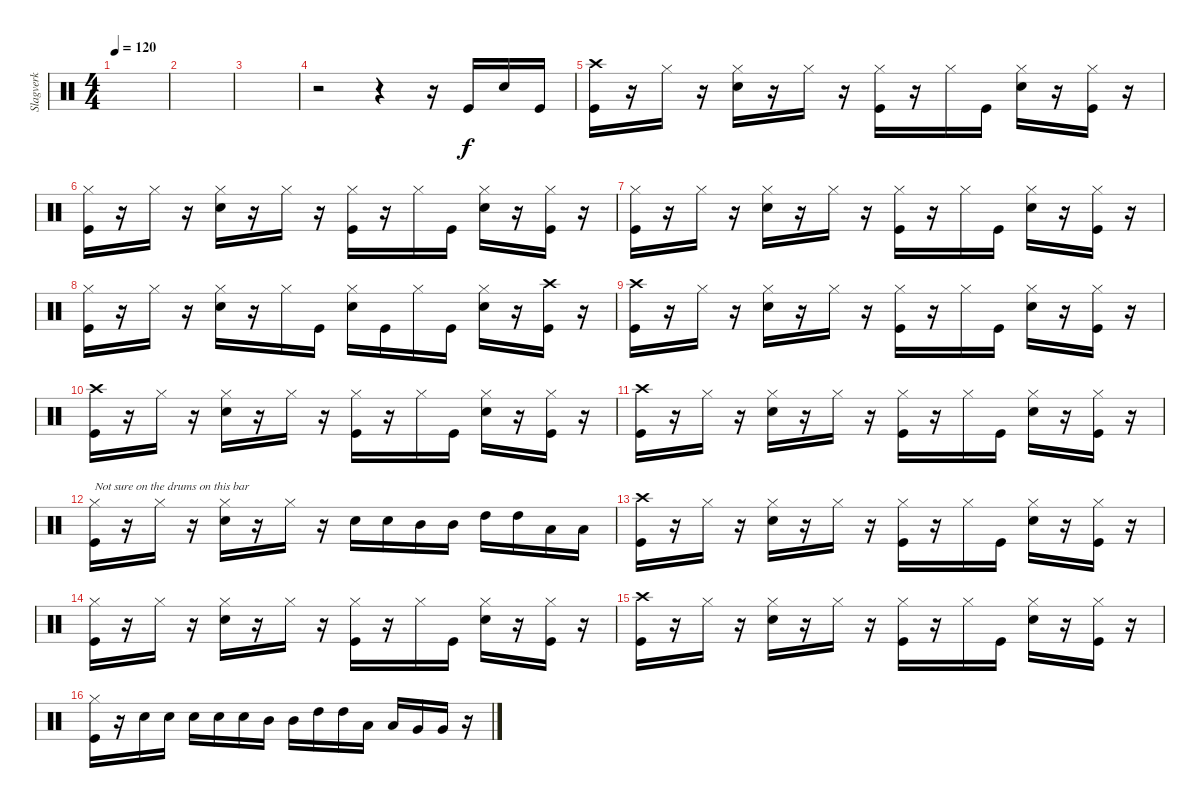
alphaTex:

\track ("Slagverk" "Slagverk") {instrument percussion}
\staff {score}
\articulation defaults
\ts (4 4)
\tempo 120
\clef neutral
\ks c
|
|
|
r.2 r.4 r.16 "Kick (hit)".16 "Snare (hit) 2".16 "Kick (hit)".16 |
("Crash high (hit)" "Kick (hit)").16 r.16 "Hi-Hat (closed)".16 r.16 ("Hi-Hat (closed)" "Snare (hit) 2").16 r.16 "Hi-Hat (closed)".16 r.16 ("Hi-Hat (closed)" "Kick (hit)").16 r.16 "Hi-Hat (closed)".16 "Kick (hit)".16 ("Hi-Hat (closed)" "Snare (hit) 2").16 r.16 ("Hi-Hat (closed)" "Kick (hit)").16 r.16 |
("Hi-Hat (closed)" "Kick (hit)").16 r.16 "Hi-Hat (closed)".16 r.16 ("Hi-Hat (closed)" "Snare (hit) 2").16 r.16 "Hi-Hat (closed)".16 r.16 ("Hi-Hat (closed)" "Kick (hit)").16 r.16 "Hi-Hat (closed)".16 "Kick (hit)".16 ("Hi-Hat (closed)" "Snare (hit) 2").16 r.16 ("Hi-Hat (closed)" "Kick (hit)").16 r.16 |
("Hi-Hat (closed)" "Kick (hit)").16 r.16 "Hi-Hat (closed)".16 r.16 ("Hi-Hat (closed)" "Snare (hit) 2").16 r.16 "Hi-Hat (closed)".16 r.16 ("Hi-Hat (closed)" "Kick (hit)").16 r.16 "Hi-Hat (closed)".16 "Kick (hit)".16 ("Hi-Hat (closed)" "Snare (hit) 2").16 r.16 ("Hi-Hat (closed)" "Kick (hit)").16 r.16 |
("Hi-Hat (closed)" "Kick (hit)").16 r.16 "Hi-Hat (closed)".16 r.16 ("Hi-Hat (closed)" "Snare (hit) 2").16 r.16 "Hi-Hat (closed)".16 "Kick (hit)".16 ("Hi-Hat (closed)" "Snare (hit) 2").16 "Kick (hit)".16 "Hi-Hat (closed)".16 "Kick (hit)".16 ("Hi-Hat (closed)" "Snare (hit) 2").16 r.16 ("Crash high (hit)" "Kick (hit)").16 r.16 |
("Crash high (hit)" "Kick (hit)").16 r.16 "Hi-Hat (closed)".16 r.16 ("Hi-Hat (closed)" "Snare (hit) 2").16 r.16 "Hi-Hat (closed)".16 r.16 ("Hi-Hat (closed)" "Kick (hit)").16 r.16 "Hi-Hat (closed)".16 "Kick (hit)".16 ("Hi-Hat (closed)" "Snare (hit) 2").16 r.16 ("Hi-Hat (closed)" "Kick (hit)").16 r.16 |
("Crash high (hit)" "Kick (hit)").16 r.16 "Hi-Hat (closed)".16 r.16 ("Hi-Hat (closed)" "Snare (hit) 2").16 r.16 "Hi-Hat (closed)".16 r.16 ("Hi-Hat (closed)" "Kick (hit)").16 r.16 "Hi-Hat (closed)".16 "Kick (hit)".16 ("Hi-Hat (closed)" "Snare (hit) 2").16 r.16 ("Hi-Hat (closed)" "Kick (hit)").16 r.16 |
("Crash high (hit)" "Kick (hit)").16 r.16 "Hi-Hat (closed)".16 r.16 ("Hi-Hat (closed)" "Snare (hit) 2").16 r.16 "Hi-Hat (closed)".16 r.16 ("Hi-Hat (closed)" "Kick (hit)").16 r.16 "Hi-Hat (closed)".16 "Kick (hit)".16 ("Hi-Hat (closed)" "Snare (hit) 2").16 r.16 ("Hi-Hat (closed)" "Kick (hit)").16 r.16 |
("Hi-Hat (closed)" "Kick (hit)").16{txt "Not sure on the drums on this bar"} r.16 "Hi-Hat (closed)".16 r.16 ("Hi-Hat (closed)" "Snare (hit) 2").16 r.16 "Hi-Hat (closed)".16 r.16 "Snare (hit) 2".16 "Snare (hit) 2".16 "Mid Tom (hit)".16 "Mid Tom (hit)".16 "High Tom (hit)".16 "High Tom (hit)".16 "Low Tom (hit)".16 "Low Tom (hit)".16 |
("Crash high (hit)" "Kick (hit)").16 r.16 "Hi-Hat (closed)".16 r.16 ("Hi-Hat (closed)" "Snare (hit) 2").16 r.16 "Hi-Hat (closed)".16 r.16 ("Hi-Hat (closed)" "Kick (hit)").16 r.16 "Hi-Hat (closed)".16 "Kick (hit)".16 ("Hi-Hat (closed)" "Snare (hit) 2").16 r.16 ("Hi-Hat (closed)" "Kick (hit)").16 r.16 |
("Hi-Hat (closed)" "Kick (hit)").16 r.16 "Hi-Hat (closed)".16 r.16 ("Hi-Hat (closed)" "Snare (hit) 2").16 r.16 "Hi-Hat (closed)".16 r.16 ("Hi-Hat (closed)" "Kick (hit)").16 r.16 "Hi-Hat (closed)".16 "Kick (hit)".16 ("Hi-Hat (closed)" "Snare (hit) 2").16 r.16 ("Hi-Hat (closed)" "Kick (hit)").16 r.16 |
("Crash high (hit)" "Kick (hit)").16 r.16 "Hi-Hat (closed)".16 r.16 ("Hi-Hat (closed)" "Snare (hit) 2").16 r.16 "Hi-Hat (closed)".16 r.16 ("Hi-Hat (closed)" "Kick (hit)").16 r.16 "Hi-Hat (closed)".16 "Kick (hit)".16 ("Hi-Hat (closed)" "Snare (hit) 2").16 r.16 ("Hi-Hat (closed)" "Kick (hit)").16 r.16 |
("Hi-Hat (closed)" "Kick (hit)").16 r.16 "Snare (hit) 2".16 "Snare (hit) 2".16 "Snare (hit) 2".16 "Snare (hit) 2".16 "Snare (hit) 2".16 "Mid Tom (hit)".16 "Mid Tom (hit)".16 "High Tom (hit)".16 "High Tom (hit)".16 "Low Tom (hit)".16 "Low Tom (hit)".16 "Very Low Tom (hit)".16 "Very Low Tom (hit)".16 r.16
